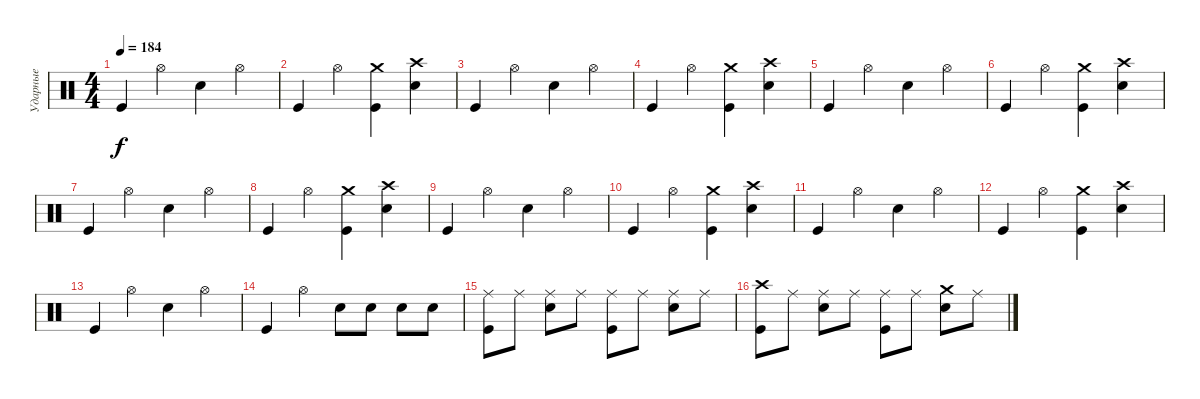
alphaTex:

\track ("Ударные" "Ударные") {instrument percussion}
\staff {score}
\articulation defaults
\ts (4 4)
\tempo 184
\clef neutral
\ks c "Kick (hit)".4{dy f} "Hi-Hat (open)".4 "Electric Snare (hit)".4 "Hi-Hat (open)".4
|
"Kick (hit)".4 "Hi-Hat (open)".4 ("Crash medium (hit)" "Kick (hit)").4 ("Crash high (hit)" "Electric Snare (hit)").4 |
"Kick (hit)".4 "Hi-Hat (open)".4 "Electric Snare (hit)".4 "Hi-Hat (open)".4 |
"Kick (hit)".4 "Hi-Hat (open)".4 ("Crash medium (hit)" "Kick (hit)").4 ("Crash high (hit)" "Electric Snare (hit)").4 |
"Kick (hit)".4 "Hi-Hat (open)".4 "Electric Snare (hit)".4 "Hi-Hat (open)".4 |
"Kick (hit)".4 "Hi-Hat (open)".4 ("Crash medium (hit)" "Kick (hit)").4 ("Crash high (hit)" "Electric Snare (hit)").4 |
"Kick (hit)".4 "Hi-Hat (open)".4 "Electric Snare (hit)".4 "Hi-Hat (open)".4 |
"Kick (hit)".4 "Hi-Hat (open)".4 ("Crash medium (hit)" "Kick (hit)").4 ("Crash high (hit)" "Electric Snare (hit)").4 |
"Kick (hit)".4 "Hi-Hat (open)".4 "Electric Snare (hit)".4 "Hi-Hat (open)".4 |
"Kick (hit)".4 "Hi-Hat (open)".4 ("Crash medium (hit)" "Kick (hit)").4 ("Crash high (hit)" "Electric Snare (hit)").4 |
"Kick (hit)".4 "Hi-Hat (open)".4 "Electric Snare (hit)".4 "Hi-Hat (open)".4 |
"Kick (hit)".4 "Hi-Hat (open)".4 ("Crash medium (hit)" "Kick (hit)").4 ("Crash high (hit)" "Electric Snare (hit)").4 |
"Kick (hit)".4 "Hi-Hat (open)".4 "Electric Snare (hit)".4 "Hi-Hat (open)".4 |
"Kick (hit)".4 "Hi-Hat (open)".4 "Electric Snare (hit)".8 "Electric Snare (hit)".8 "Electric Snare (hit)".8 "Electric Snare (hit)".8 |
("Ride (middle)" "Kick (hit)").8 "Ride (middle)".8 ("Ride (middle)" "Electric Snare (hit)").8 "Ride (middle)".8 ("Ride (middle)" "Kick (hit)").8 "Ride (middle)".8 ("Ride (middle)" "Electric Snare (hit)").8 "Ride (middle)".8 |
("Crash high (hit)" "Kick (hit)").8 "Ride (middle)".8 ("Ride (middle)" "Electric Snare (hit)").8 "Ride (middle)".8 ("Ride (middle)" "Kick (hit)").8 "Ride (middle)".8 ("Crash medium (hit)" "Electric Snare (hit)").8 "Ride (middle)".8
